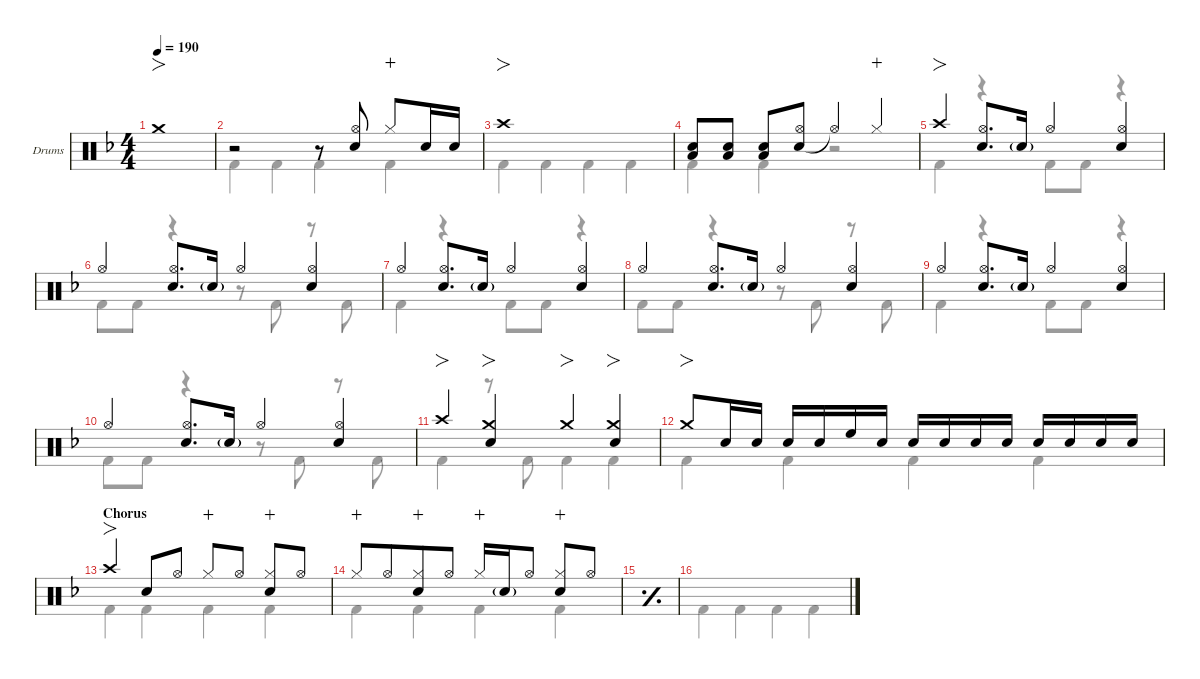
\defaultSystemsLayout 4
\hideDynamics
\bracketExtendMode nobrackets
\firstSystemTrackNameOrientation horizontal
\track ("Drums" "Drums") {defaultSystemsLayout 4 instrument percussion}
\staff {score}
\articulation defaults
\voice
\ts (4 4)
\tempo 190
\clef neutral
\scale
0.266618
\ks dminor "Crash medium (hit)"{acc forcenatural}.1{fo dy f beam Up}
|
\scale
0.244461 r.2{beam Up} r.8{beam Up} ("Snare (hit) 2"{acc forcenatural} "Hi-Hat (open)"{acc forcenatural}).8{beam Up beam split} "Hi-Hat (closed)"{acc forcenatural}.8{dy mp wahc beam Up} "Snare (hit) 2"{acc forcenatural}.16{dy f beam Up} "Snare (hit) 2"{acc forcenatural}.16{dy mf beam Up} |
\scale
0.244461 "Crash high (hit)"{acc forcenatural}.1{fo dy f beam Up} |
\scale
0.244461 ("Snare (hit) 2"{acc forcenatural} "Low Tom (hit)"{acc forcenatural}).8{beam Up} ("Snare (hit) 2"{acc forcenatural} "Low Tom (hit)"{acc forcenatural}).8{beam Up} ("Low Tom (hit)"{acc forcenatural} "Snare (hit) 2"{acc forcenatural}).8{beam Up} ("Snare (hit) 2"{acc forcenatural} "Hi-Hat (open)"{acc forcenatural}).8{beam Up} "Hi-Hat (open)"{t acc forcenatural}.4{beam Up} "Hi-Hat (closed)"{acc forcenatural}.4{dy mp wahc beam Up} |
\scale
0.266618 "Crash high (hit)"{acc forcenatural}.4{fo dy f beam Up} ("Hi-Hat (open)"{acc forcenatural} "Snare (hit) 2"{acc forcenatural}).8{d beam Up} "Snare (hit) 2"{g acc forcenatural}.16{dy mf beam Up} "Hi-Hat (open)"{acc forcenatural}.4{dy f beam Up} ("Hi-Hat (open)"{acc forcenatural} "Snare (hit) 2"{acc forcenatural}).4{beam Up} |
\scale
0.244461 "Hi-Hat (open)"{acc forcenatural}.4{beam Up} ("Hi-Hat (open)"{acc forcenatural} "Snare (hit) 2"{acc forcenatural}).8{d beam Up} "Snare (hit) 2"{g acc forcenatural}.16{dy mf beam Up} "Hi-Hat (open)"{acc forcenatural}.4{dy f beam Up} ("Hi-Hat (open)"{acc forcenatural} "Snare (hit) 2"{acc forcenatural}).4{beam Up} |
\scale
0.24446 "Hi-Hat (open)"{acc forcenatural}.4{beam Up} ("Hi-Hat (open)"{acc forcenatural} "Snare (hit) 2"{acc forcenatural}).8{d beam Up} "Snare (hit) 2"{g acc forcenatural}.16{dy mf beam Up} "Hi-Hat (open)"{acc forcenatural}.4{dy f beam Up} ("Hi-Hat (open)"{acc forcenatural} "Snare (hit) 2"{acc forcenatural}).4{beam Up} |
\scale
0.244461 "Hi-Hat (open)"{acc forcenatural}.4{beam Up} ("Hi-Hat (open)"{acc forcenatural} "Snare (hit) 2"{acc forcenatural}).8{d beam Up} "Snare (hit) 2"{g acc forcenatural}.16{dy mf beam Up} "Hi-Hat (open)"{acc forcenatural}.4{dy f beam Up} ("Hi-Hat (open)"{acc forcenatural} "Snare (hit) 2"{acc forcenatural}).4{beam Up} |
\scale
0.266618 "Hi-Hat (open)"{acc forcenatural}.4{beam Up} ("Hi-Hat (open)"{acc forcenatural} "Snare (hit) 2"{acc forcenatural}).8{d beam Up} "Snare (hit) 2"{g acc forcenatural}.16{dy mf beam Up} "Hi-Hat (open)"{acc forcenatural}.4{dy f beam Up} ("Hi-Hat (open)"{acc forcenatural} "Snare (hit) 2"{acc forcenatural}).4{beam Up} |
\scale
0.244461 "Hi-Hat (open)"{acc forcenatural}.4{beam Up} ("Hi-Hat (open)"{acc forcenatural} "Snare (hit) 2"{acc forcenatural}).8{d beam Up} "Snare (hit) 2"{g acc forcenatural}.16{dy mf beam Up} "Hi-Hat (open)"{acc forcenatural}.4{dy f beam Up} ("Hi-Hat (open)"{acc forcenatural} "Snare (hit) 2"{acc forcenatural}).4{beam Up} |
\scale
0.244461 "Crash high (hit)"{acc forcenatural}.4{fo beam Up} ("Snare (hit) 2"{acc forcenatural} "Crash medium (hit)"{acc forcenatural}).4{fo beam Up} "Crash medium (hit)"{acc forcenatural}.4{fo beam Up} ("Snare (hit) 2"{acc forcenatural} "Crash medium (hit)"{acc forcenatural}).4{fo beam Up} |
\scale
0.244461 "Crash medium (hit)"{acc forcenatural}.8{fo beam Up} "Snare (hit) 2"{acc forcenatural}.16{beam Up} "Snare (hit) 2"{acc forcenatural}.16{dy mf beam Up beam split} "Snare (hit) 2"{acc forcenatural}.16{dy f beam Up} "Snare (hit) 2"{acc forcenatural}.16{dy mp beam Up} "High Floor Tom (hit)"{acc forcenatural}.16{dy f beam Up} "Snare (hit) 2"{acc forcenatural}.16{dy mp beam Up} "Snare (hit) 2"{acc forcenatural}.16{dy f beam Up} "Snare (hit) 2"{acc forcenatural}.16{dy mp beam Up} "Snare (hit) 2"{acc forcenatural}.16{dy mf beam Up} "Snare (hit) 2"{acc forcenatural}.16{dy mp beam Up beam split} "Snare (hit) 2"{acc forcenatural}.16{dy f beam Up} "Snare (hit) 2"{acc forcenatural}.16{dy mp beam Up} "Snare (hit) 2"{acc forcenatural}.16{dy mf beam Up} "Snare (hit) 2"{acc forcenatural}.16{dy mp beam Up} |
\section ("" "Chorus")
\scale
0.266618 "Crash high (hit)"{acc forcenatural}.4{fo dy f beam Up} "Snare (hit) 2"{acc forcenatural}.8{beam Up} "Hi-Hat (open)"{acc forcenatural}.8{beam Up} "Hi-Hat (closed)"{acc forcenatural}.8{dy mp wahc beam Up} "Hi-Hat (open)"{acc forcenatural}.8{dy f beam Up} ("Hi-Hat (closed)"{acc forcenatural} "Snare (hit) 2"{acc forcenatural}).8{wahc beam Up} "Hi-Hat (open)"{acc forcenatural}.8{beam Up} |
\scale
0.244461 "Hi-Hat (closed)"{acc forcenatural}.8{dy mp wahc beam Up beam merge} "Hi-Hat (open)"{acc forcenatural}.8{dy f beam Up beam merge} ("Hi-Hat (closed)"{acc forcenatural} "Snare (hit) 2"{acc forcenatural}).8{wahc beam Up beam merge} "Hi-Hat (open)"{acc forcenatural}.8{beam Up} "Hi-Hat (closed)"{acc forcenatural}.16{dy mp wahc beam Up} "Snare (hit) 2"{g acc forcenatural}.16{dy mf beam Up} "Hi-Hat (open)"{acc forcenatural}.8{dy f beam Up beam split} ("Hi-Hat (closed)"{acc forcenatural} "Snare (hit) 2"{acc forcenatural}).8{wahc beam Up} "Hi-Hat (open)"{acc forcenatural}.8{beam Up} |
\simile simple
\scale
0.24446 |
\scale
0.244461
\voice
\clef neutral
\ottava regular
\simile none
\scale
0.266618
\ks dminor "Kick (hit) 2"{acc forcenatural}.4{dy f beam Down} "Kick (hit) 2"{acc forcenatural}.4{beam Down} "Kick (hit) 2"{acc forcenatural}.4{beam Down} "Kick (hit) 2"{acc forcenatural}.4{beam Down}
|
\scale
0.244461 "Kick (hit) 2"{acc forcenatural}.4{beam Down} "Kick (hit) 2"{acc forcenatural}.4{beam Down} "Kick (hit) 2"{acc forcenatural}.4{beam Down} "Kick (hit) 2"{acc forcenatural}.4{beam Down} |
\scale
0.244461 "Kick (hit) 2"{acc forcenatural}.4{beam Down} "Kick (hit) 2"{acc forcenatural}.4{beam Down} "Kick (hit) 2"{acc forcenatural}.4{beam Down} "Kick (hit) 2"{acc forcenatural}.4{beam Down} |
\scale
0.244461 "Kick (hit) 2"{acc forcenatural}.4{beam Down} "Kick (hit) 2"{acc forcenatural}.4{beam Down} r.2{beam Down} |
\scale
0.266618 "Kick (hit) 2"{acc forcenatural}.4{beam Down} r.4{beam Down} "Kick (hit) 2"{acc forcenatural}.8{beam Down} "Kick (hit) 2"{acc forcenatural}.8{beam Down} r.4{beam Down} |
\scale
0.244461 "Kick (hit) 2"{acc forcenatural}.8{beam Down} "Kick (hit) 2"{acc forcenatural}.8{beam Down} r.4{beam Down} r.8{beam Down} "Kick (hit) 2"{acc forcenatural}.8{beam Down} r.8{beam Down} "Kick (hit) 2"{acc forcenatural}.8{beam Down} |
\scale
0.24446 "Kick (hit) 2"{acc forcenatural}.4{beam Down} r.4{beam Down} "Kick (hit) 2"{acc forcenatural}.8{beam Down} "Kick (hit) 2"{acc forcenatural}.8{beam Down} r.4{beam Down} |
\scale
0.244461 "Kick (hit) 2"{acc forcenatural}.8{beam Down} "Kick (hit) 2"{acc forcenatural}.8{beam Down} r.4{beam Down} r.8{beam Down} "Kick (hit) 2"{acc forcenatural}.8{beam Down} r.8{beam Down} "Kick (hit) 2"{acc forcenatural}.8{beam Down} |
\scale
0.266618 "Kick (hit) 2"{acc forcenatural}.4{beam Down} r.4{beam Down} "Kick (hit) 2"{acc forcenatural}.8{beam Down} "Kick (hit) 2"{acc forcenatural}.8{beam Down} r.4{beam Down} |
\scale
0.244461 "Kick (hit) 2"{acc forcenatural}.8{beam Down} "Kick (hit) 2"{acc forcenatural}.8{beam Down} r.4{beam Down} r.8{beam Down} "Kick (hit) 2"{acc forcenatural}.8{beam Down} r.8{beam Down} "Kick (hit) 2"{acc forcenatural}.8{beam Down} |
\scale
0.244461 "Kick (hit) 2"{acc forcenatural}.4{beam Down} r.8{beam Down} "Kick (hit) 2"{acc forcenatural}.8{beam Down} "Kick (hit) 2"{acc forcenatural}.4{beam Down} "Kick (hit) 2"{acc forcenatural}.4{beam Down} |
\scale
0.244461 "Kick (hit) 2"{acc forcenatural}.4{beam Down} "Kick (hit) 2"{acc forcenatural}.4{beam Down} "Kick (hit) 2"{acc forcenatural}.4{beam Down} "Kick (hit) 2"{acc forcenatural}.4{beam Down} |
\scale
0.266618 "Kick (hit) 2"{acc forcenatural}.4{beam Down} "Kick (hit) 2"{acc forcenatural}.4{beam Down} "Kick (hit) 2"{acc forcenatural}.4{beam Down} "Kick (hit) 2"{acc forcenatural}.4{beam Down} |
\scale
0.244461 "Kick (hit) 2"{acc forcenatural}.4{beam Down} "Kick (hit) 2"{acc forcenatural}.4{beam Down} "Kick (hit) 2"{acc forcenatural}.4{beam Down} "Kick (hit) 2"{acc forcenatural}.4{beam Down} |
\simile simple
\scale
0.24446 |
\scale
0.244461
